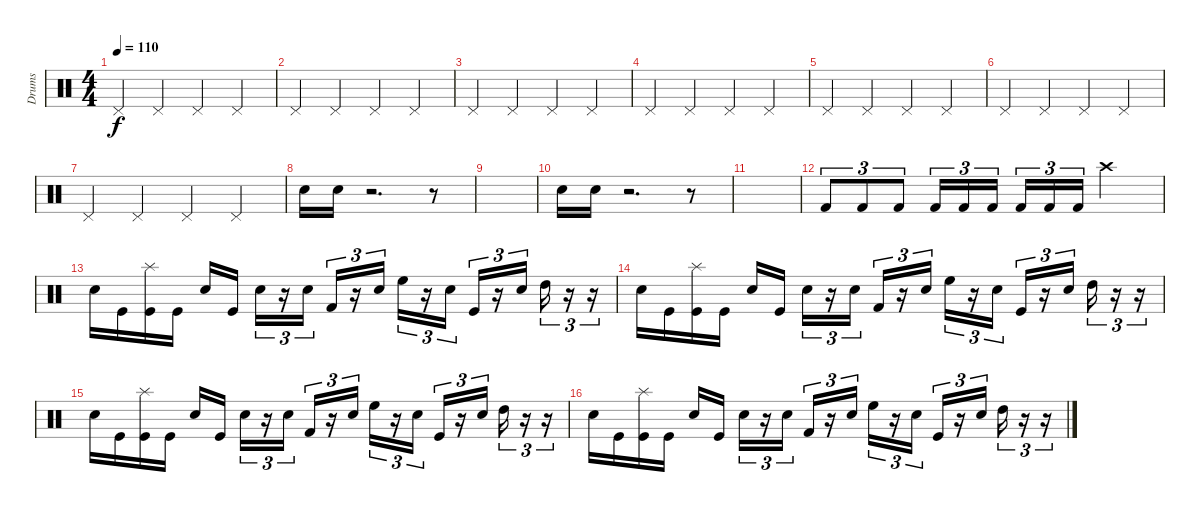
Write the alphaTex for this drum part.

\track ("Drums" "Drums") {instrument percussion}
\staff {score}
\articulation defaults
\ts (4 4)
\tempo 110
\clef neutral
\ks c "Pedal Hi-Hat (hit)".4{dy f} "Pedal Hi-Hat (hit)".4 "Pedal Hi-Hat (hit)".4 "Pedal Hi-Hat (hit)".4
|
"Pedal Hi-Hat (hit)".4 "Pedal Hi-Hat (hit)".4 "Pedal Hi-Hat (hit)".4 "Pedal Hi-Hat (hit)".4 |
"Pedal Hi-Hat (hit)".4 "Pedal Hi-Hat (hit)".4 "Pedal Hi-Hat (hit)".4 "Pedal Hi-Hat (hit)".4 |
"Pedal Hi-Hat (hit)".4 "Pedal Hi-Hat (hit)".4 "Pedal Hi-Hat (hit)".4 "Pedal Hi-Hat (hit)".4 |
"Pedal Hi-Hat (hit)".4 "Pedal Hi-Hat (hit)".4 "Pedal Hi-Hat (hit)".4 "Pedal Hi-Hat (hit)".4 |
"Pedal Hi-Hat (hit)".4 "Pedal Hi-Hat (hit)".4 "Pedal Hi-Hat (hit)".4 "Pedal Hi-Hat (hit)".4 |
"Pedal Hi-Hat (hit)".4 "Pedal Hi-Hat (hit)".4 "Pedal Hi-Hat (hit)".4 "Pedal Hi-Hat (hit)".4 |
"Electric Snare (hit)".16 "Electric Snare (hit)".16 r.2{d} r.8 |
|
"Electric Snare (hit)".16 "Electric Snare (hit)".16 r.2{d} r.8 |
|
"Kick (hit) 2".8{tu (3 2)} "Kick (hit) 2".8{tu (3 2)} "Kick (hit) 2".8{tu (3 2)} "Kick (hit) 2".16{tu (3 2)} "Kick (hit) 2".16{tu (3 2)} "Kick (hit) 2".16{tu (3 2) beam splitsecondary} "Kick (hit) 2".16{tu (3 2)} "Kick (hit) 2".16{tu (3 2)} "Kick (hit) 2".16{tu (3 2)} "Crash high (hit)".2 |
"Electric Snare (hit)".16 "Kick (hit)".16 ("Splash (hit)" "Kick (hit)").16 "Kick (hit)".16 "Electric Snare (hit)".16 "Kick (hit)".16{beam splitsecondary} "Snare (hit) 2".16{tu (3 2)} r.16{tu (3 2)} "Electric Snare (hit)".16{tu (3 2)} "Kick (hit) 2".16{tu (3 2)} r.16{tu (3 2)} "Electric Snare (hit)".16{tu (3 2)} "High Floor Tom (hit)".16{tu (3 2)} r.16{tu (3 2)} "Electric Snare (hit)".16{tu (3 2)} "Kick (hit)".16{tu (3 2)} r.16{tu (3 2)} "Electric Snare (hit)".16{tu (3 2)} "High Tom (hit)".16{tu (3 2)} r.16{tu (3 2)} r.16{tu (3 2)} |
"Electric Snare (hit)".16 "Kick (hit)".16 ("Splash (hit)" "Kick (hit)").16 "Kick (hit)".16 "Electric Snare (hit)".16 "Kick (hit)".16{beam splitsecondary} "Snare (hit) 2".16{tu (3 2)} r.16{tu (3 2)} "Electric Snare (hit)".16{tu (3 2)} "Kick (hit) 2".16{tu (3 2)} r.16{tu (3 2)} "Electric Snare (hit)".16{tu (3 2)} "High Floor Tom (hit)".16{tu (3 2)} r.16{tu (3 2)} "Electric Snare (hit)".16{tu (3 2)} "Kick (hit)".16{tu (3 2)} r.16{tu (3 2)} "Electric Snare (hit)".16{tu (3 2)} "High Tom (hit)".16{tu (3 2)} r.16{tu (3 2)} r.16{tu (3 2)} |
"Electric Snare (hit)".16 "Kick (hit)".16 ("Splash (hit)" "Kick (hit)").16 "Kick (hit)".16 "Electric Snare (hit)".16 "Kick (hit)".16{beam splitsecondary} "Snare (hit) 2".16{tu (3 2)} r.16{tu (3 2)} "Electric Snare (hit)".16{tu (3 2)} "Kick (hit) 2".16{tu (3 2)} r.16{tu (3 2)} "Electric Snare (hit)".16{tu (3 2)} "High Floor Tom (hit)".16{tu (3 2)} r.16{tu (3 2)} "Electric Snare (hit)".16{tu (3 2)} "Kick (hit)".16{tu (3 2)} r.16{tu (3 2)} "Electric Snare (hit)".16{tu (3 2)} "High Tom (hit)".16{tu (3 2)} r.16{tu (3 2)} r.16{tu (3 2)} |
"Electric Snare (hit)".16 "Kick (hit)".16 ("Splash (hit)" "Kick (hit)").16 "Kick (hit)".16 "Electric Snare (hit)".16 "Kick (hit)".16{beam splitsecondary} "Snare (hit) 2".16{tu (3 2)} r.16{tu (3 2)} "Electric Snare (hit)".16{tu (3 2)} "Kick (hit) 2".16{tu (3 2)} r.16{tu (3 2)} "Electric Snare (hit)".16{tu (3 2)} "High Floor Tom (hit)".16{tu (3 2)} r.16{tu (3 2)} "Electric Snare (hit)".16{tu (3 2)} "Kick (hit)".16{tu (3 2)} r.16{tu (3 2)} "Electric Snare (hit)".16{tu (3 2)} "High Tom (hit)".16{tu (3 2)} r.16{tu (3 2)} r.16{tu (3 2)}
